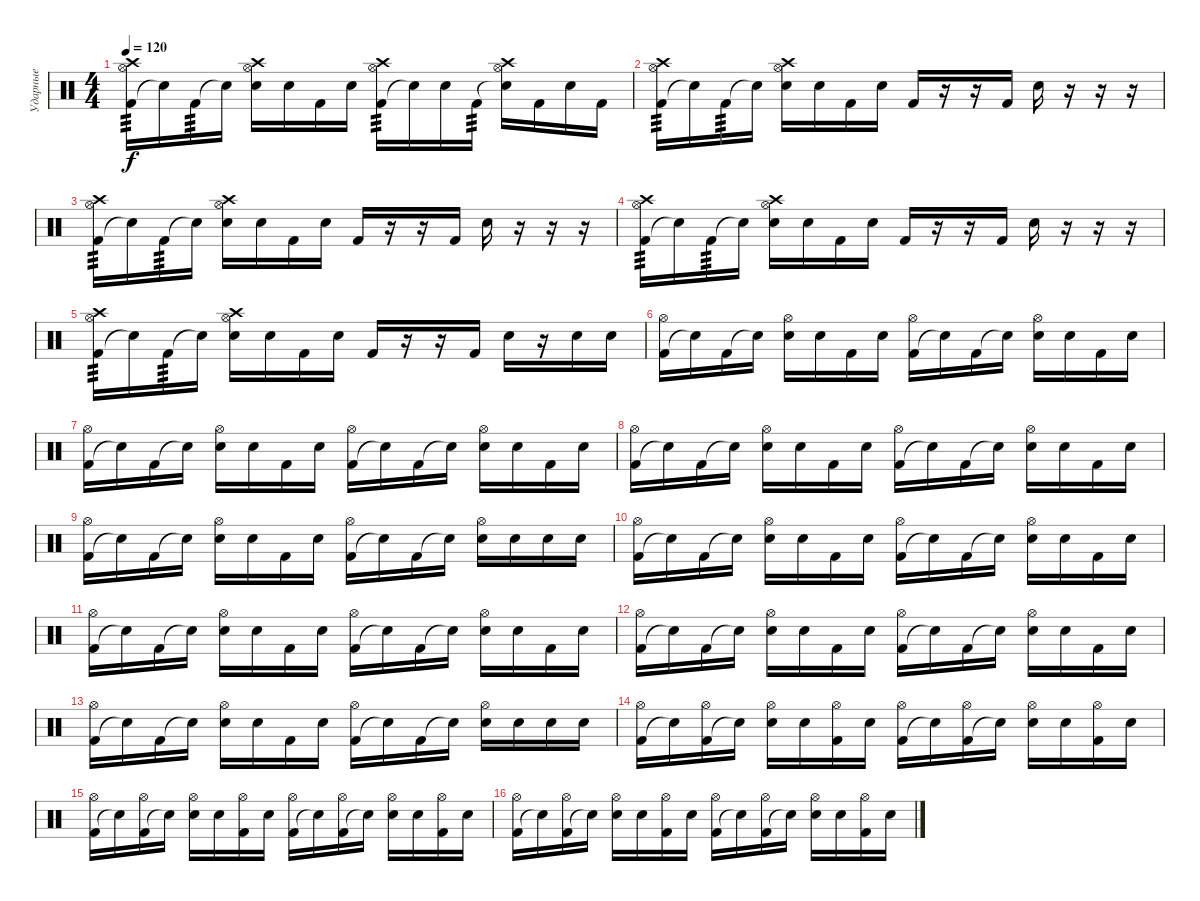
\track ("Ударные" "Ударные") {instrument percussion}
\staff {score}
\articulation defaults
\ts (4 4)
\tempo 120
\clef neutral
\ks c
("Kick (hit) 2" "Hi-Hat (open)" "Crash high (hit)").16{tp 3 dy f} "Snare (hit)"{t}.16 "Kick (hit) 2".16{tp 3} "Snare (hit)"{t}.16 ("Electric Snare (hit)" "Hi-Hat (open)" "Crash high (hit)").16 "Electric Snare (hit)".16 "Kick (hit) 2".16 "Electric Snare (hit)".16 ("Kick (hit) 2" "Hi-Hat (open)" "Crash high (hit)").16{tp 3} "Snare (hit)"{t}.16 "Electric Snare (hit)".16 "Kick (hit) 2".16{tp 3} ("Snare (hit)"{t} "Hi-Hat (open)" "Crash high (hit)").16 "Kick (hit) 2".16 "Electric Snare (hit)".16 "Kick (hit) 2".16 |
("Kick (hit) 2" "Hi-Hat (open)" "Crash high (hit)").16{tp 3} "Snare (hit)"{t}.16 "Kick (hit) 2".16{tp 3} "Snare (hit)"{t}.16 ("Electric Snare (hit)" "Hi-Hat (open)" "Crash high (hit)").16 "Electric Snare (hit)".16 "Kick (hit) 2".16 "Electric Snare (hit)".16 "Kick (hit) 2".16 r.16 r.16 "Kick (hit) 2".16 "Electric Snare (hit)".16 r.16 r.16 r.16 |
("Kick (hit) 2" "Hi-Hat (open)" "Crash high (hit)").16{tp 3} "Snare (hit)"{t}.16 "Kick (hit) 2".16{tp 3} "Snare (hit)"{t}.16 ("Electric Snare (hit)" "Hi-Hat (open)" "Crash high (hit)").16 "Electric Snare (hit)".16 "Kick (hit) 2".16 "Electric Snare (hit)".16 "Kick (hit) 2".16 r.16 r.16 "Kick (hit) 2".16 "Electric Snare (hit)".16 r.16 r.16 r.16 |
("Kick (hit) 2" "Hi-Hat (open)" "Crash high (hit)").16{tp 3} "Snare (hit)"{t}.16 "Kick (hit) 2".16{tp 3} "Snare (hit)"{t}.16 ("Electric Snare (hit)" "Hi-Hat (open)" "Crash high (hit)").16 "Electric Snare (hit)".16 "Kick (hit) 2".16 "Electric Snare (hit)".16 "Kick (hit) 2".16 r.16 r.16 "Kick (hit) 2".16 "Electric Snare (hit)".16 r.16 r.16 r.16 |
("Kick (hit) 2" "Hi-Hat (open)" "Crash high (hit)").16{tp 3} "Snare (hit)"{t}.16 "Kick (hit) 2".16{tp 3} "Snare (hit)"{t}.16 ("Electric Snare (hit)" "Hi-Hat (open)" "Crash high (hit)").16 "Electric Snare (hit)".16 "Kick (hit) 2".16 "Electric Snare (hit)".16 "Kick (hit) 2".16 r.16 r.16 "Kick (hit) 2".16 "Electric Snare (hit)".16 r.16 "Electric Snare (hit)".16 "Electric Snare (hit)".16 |
("Kick (hit) 2" "Hi-Hat (open)").16 "Snare (hit)"{t}.16 "Kick (hit) 2".16 "Snare (hit)"{t}.16 ("Electric Snare (hit)" "Hi-Hat (open)").16 "Electric Snare (hit)".16 "Kick (hit) 2".16 "Electric Snare (hit)".16 ("Kick (hit) 2" "Hi-Hat (open)").16 "Snare (hit)"{t}.16 "Kick (hit) 2".16 "Snare (hit)"{t}.16 ("Electric Snare (hit)" "Hi-Hat (open)").16 "Electric Snare (hit)".16 "Kick (hit) 2".16 "Electric Snare (hit)".16 |
("Kick (hit) 2" "Hi-Hat (open)").16 "Snare (hit)"{t}.16 "Kick (hit) 2".16 "Snare (hit)"{t}.16 ("Electric Snare (hit)" "Hi-Hat (open)").16 "Electric Snare (hit)".16 "Kick (hit) 2".16 "Electric Snare (hit)".16 ("Kick (hit) 2" "Hi-Hat (open)").16 "Snare (hit)"{t}.16 "Kick (hit) 2".16 "Snare (hit)"{t}.16 ("Electric Snare (hit)" "Hi-Hat (open)").16 "Electric Snare (hit)".16 "Kick (hit) 2".16 "Electric Snare (hit)".16 |
("Kick (hit) 2" "Hi-Hat (open)").16 "Snare (hit)"{t}.16 "Kick (hit) 2".16 "Snare (hit)"{t}.16 ("Electric Snare (hit)" "Hi-Hat (open)").16 "Electric Snare (hit)".16 "Kick (hit) 2".16 "Electric Snare (hit)".16 ("Kick (hit) 2" "Hi-Hat (open)").16 "Snare (hit)"{t}.16 "Kick (hit) 2".16 "Snare (hit)"{t}.16 ("Electric Snare (hit)" "Hi-Hat (open)").16 "Electric Snare (hit)".16 "Kick (hit) 2".16 "Electric Snare (hit)".16 |
("Kick (hit) 2" "Hi-Hat (open)").16 "Snare (hit)"{t}.16 "Kick (hit) 2".16 "Snare (hit)"{t}.16 ("Electric Snare (hit)" "Hi-Hat (open)").16 "Electric Snare (hit)".16 "Kick (hit) 2".16 "Electric Snare (hit)".16 ("Kick (hit) 2" "Hi-Hat (open)").16 "Snare (hit)"{t}.16 "Kick (hit) 2".16 "Snare (hit)"{t}.16 ("Electric Snare (hit)" "Hi-Hat (open)").16 "Electric Snare (hit)".16 "Electric Snare (hit)".16 "Electric Snare (hit)".16 |
("Kick (hit) 2" "Hi-Hat (open)").16 "Snare (hit)"{t}.16 "Kick (hit) 2".16 "Snare (hit)"{t}.16 ("Electric Snare (hit)" "Hi-Hat (open)").16 "Electric Snare (hit)".16 "Kick (hit) 2".16 "Electric Snare (hit)".16 ("Kick (hit) 2" "Hi-Hat (open)").16 "Snare (hit)"{t}.16 "Kick (hit) 2".16 "Snare (hit)"{t}.16 ("Electric Snare (hit)" "Hi-Hat (open)").16 "Electric Snare (hit)".16 "Kick (hit) 2".16 "Electric Snare (hit)".16 |
("Kick (hit) 2" "Hi-Hat (open)").16 "Snare (hit)"{t}.16 "Kick (hit) 2".16 "Snare (hit)"{t}.16 ("Electric Snare (hit)" "Hi-Hat (open)").16 "Electric Snare (hit)".16 "Kick (hit) 2".16 "Electric Snare (hit)".16 ("Kick (hit) 2" "Hi-Hat (open)").16 "Snare (hit)"{t}.16 "Kick (hit) 2".16 "Snare (hit)"{t}.16 ("Electric Snare (hit)" "Hi-Hat (open)").16 "Electric Snare (hit)".16 "Kick (hit) 2".16 "Electric Snare (hit)".16 |
("Kick (hit) 2" "Hi-Hat (open)").16 "Snare (hit)"{t}.16 "Kick (hit) 2".16 "Snare (hit)"{t}.16 ("Electric Snare (hit)" "Hi-Hat (open)").16 "Electric Snare (hit)".16 "Kick (hit) 2".16 "Electric Snare (hit)".16 ("Kick (hit) 2" "Hi-Hat (open)").16 "Snare (hit)"{t}.16 "Kick (hit) 2".16 "Snare (hit)"{t}.16 ("Electric Snare (hit)" "Hi-Hat (open)").16 "Electric Snare (hit)".16 "Kick (hit) 2".16 "Electric Snare (hit)".16 |
("Kick (hit) 2" "Hi-Hat (open)").16 "Snare (hit)"{t}.16 "Kick (hit) 2".16 "Snare (hit)"{t}.16 ("Electric Snare (hit)" "Hi-Hat (open)").16 "Electric Snare (hit)".16 "Kick (hit) 2".16 "Electric Snare (hit)".16 ("Kick (hit) 2" "Hi-Hat (open)").16 "Snare (hit)"{t}.16 "Kick (hit) 2".16 "Snare (hit)"{t}.16 ("Electric Snare (hit)" "Hi-Hat (open)").16 "Electric Snare (hit)".16 "Electric Snare (hit)".16 "Electric Snare (hit)".16 |
("Kick (hit) 2" "Hi-Hat (open)").16 "Snare (hit)"{t}.16 ("Kick (hit) 2" "Hi-Hat (open)").16 "Snare (hit)"{t}.16 ("Electric Snare (hit)" "Hi-Hat (open)").16 "Electric Snare (hit)".16 ("Kick (hit) 2" "Hi-Hat (open)").16 "Electric Snare (hit)".16 ("Kick (hit) 2" "Hi-Hat (open)").16 "Snare (hit)"{t}.16 ("Kick (hit) 2" "Hi-Hat (open)").16 "Snare (hit)"{t}.16 ("Electric Snare (hit)" "Hi-Hat (open)").16 "Electric Snare (hit)".16 ("Kick (hit) 2" "Hi-Hat (open)").16 "Electric Snare (hit)".16 |
("Kick (hit) 2" "Hi-Hat (open)").16 "Snare (hit)"{t}.16 ("Kick (hit) 2" "Hi-Hat (open)").16 "Snare (hit)"{t}.16 ("Electric Snare (hit)" "Hi-Hat (open)").16 "Electric Snare (hit)".16 ("Kick (hit) 2" "Hi-Hat (open)").16 "Electric Snare (hit)".16 ("Kick (hit) 2" "Hi-Hat (open)").16 "Snare (hit)"{t}.16 ("Kick (hit) 2" "Hi-Hat (open)").16 "Snare (hit)"{t}.16 ("Electric Snare (hit)" "Hi-Hat (open)").16 "Electric Snare (hit)".16 ("Kick (hit) 2" "Hi-Hat (open)").16 "Electric Snare (hit)".16 |
("Kick (hit) 2" "Hi-Hat (open)").16 "Snare (hit)"{t}.16 ("Kick (hit) 2" "Hi-Hat (open)").16 "Snare (hit)"{t}.16 ("Electric Snare (hit)" "Hi-Hat (open)").16 "Electric Snare (hit)".16 ("Kick (hit) 2" "Hi-Hat (open)").16 "Electric Snare (hit)".16 ("Kick (hit) 2" "Hi-Hat (open)").16 "Snare (hit)"{t}.16 ("Kick (hit) 2" "Hi-Hat (open)").16 "Snare (hit)"{t}.16 ("Electric Snare (hit)" "Hi-Hat (open)").16 "Electric Snare (hit)".16 ("Kick (hit) 2" "Hi-Hat (open)").16 "Electric Snare (hit)".16
